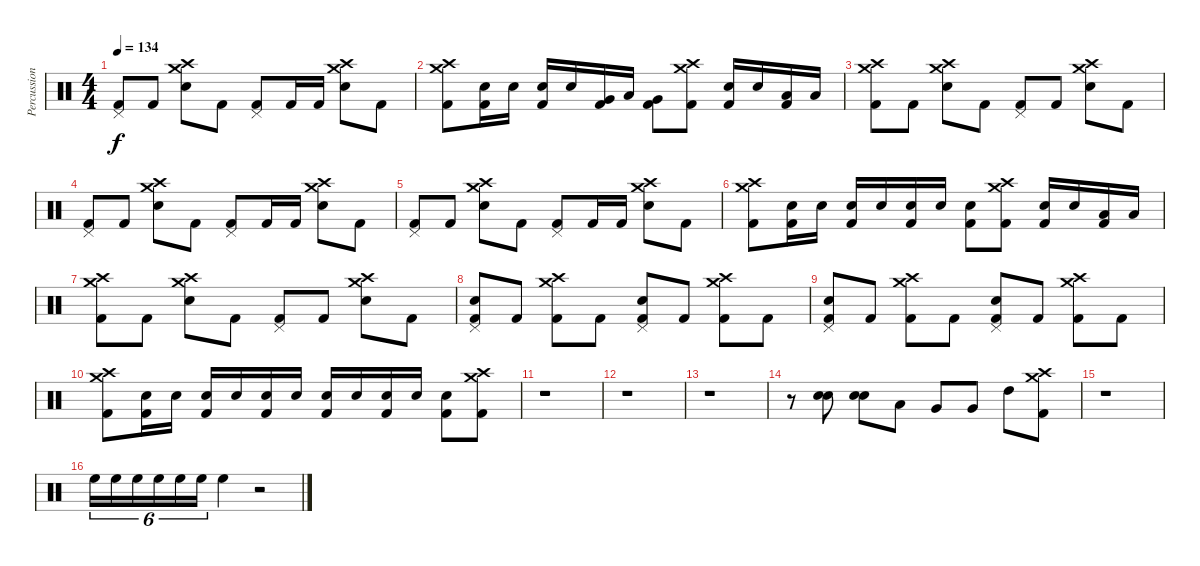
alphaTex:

\track ("Percussion" "Percussion") {instrument percussion}
\staff {score}
\articulation defaults
\ts (4 4)
\tempo 134
\clef neutral
\ks c
("Pedal Hi-Hat (hit)" "Kick (hit) 2").8{dy f} "Kick (hit) 2".8 ("Crash high (hit)" "Crash medium (hit)" "Snare (hit) 2").8 "Kick (hit) 2".8 ("Pedal Hi-Hat (hit)" "Kick (hit) 2").8 "Kick (hit) 2".16 "Kick (hit) 2".16 ("Crash high (hit)" "Crash medium (hit)" "Snare (hit) 2").8 "Kick (hit) 2".8 |
("Crash high (hit)" "Crash medium (hit)" "Kick (hit) 2").8 ("Snare (hit) 2" "Kick (hit) 2").16 "Snare (hit) 2".16 ("Snare (hit) 2" "Kick (hit) 2").16 "Snare (hit) 2".16 ("Very Low Tom (hit)" "Kick (hit) 2").16 "Low Tom (hit)".16 ("Very Low Tom (hit)" "Kick (hit) 2").8 ("Crash high (hit)" "Crash medium (hit)" "Kick (hit) 2").8 ("Snare (hit) 2" "Kick (hit) 2").16 "Snare (hit) 2".16 ("Low Tom (hit)" "Kick (hit) 2").16 "Low Tom (hit)".16 |
("Crash high (hit)" "Crash medium (hit)" "Kick (hit) 2").8 "Kick (hit) 2".8 ("Crash high (hit)" "Crash medium (hit)" "Snare (hit) 2").8 "Kick (hit) 2".8 ("Pedal Hi-Hat (hit)" "Kick (hit) 2").8 "Kick (hit) 2".8 ("Crash high (hit)" "Crash medium (hit)" "Snare (hit) 2").8 "Kick (hit) 2".8 |
("Pedal Hi-Hat (hit)" "Kick (hit) 2").8 "Kick (hit) 2".8 ("Crash high (hit)" "Crash medium (hit)" "Snare (hit) 2").8 "Kick (hit) 2".8 ("Pedal Hi-Hat (hit)" "Kick (hit) 2").8 "Kick (hit) 2".16 "Kick (hit) 2".16 ("Crash high (hit)" "Crash medium (hit)" "Snare (hit) 2").8 "Kick (hit) 2".8 |
("Pedal Hi-Hat (hit)" "Kick (hit) 2").8 "Kick (hit) 2".8 ("Crash high (hit)" "Crash medium (hit)" "Snare (hit) 2").8 "Kick (hit) 2".8 ("Pedal Hi-Hat (hit)" "Kick (hit) 2").8 "Kick (hit) 2".16 "Kick (hit) 2".16 ("Crash high (hit)" "Crash medium (hit)" "Snare (hit) 2").8 "Kick (hit) 2".8 |
("Crash high (hit)" "Crash medium (hit)" "Kick (hit) 2").8 ("Snare (hit) 2" "Kick (hit) 2").16 "Snare (hit) 2".16 ("Snare (hit) 2" "Kick (hit) 2").16 "Snare (hit) 2".16 ("Snare (hit) 2" "Kick (hit) 2").16 "Snare (hit) 2".16 ("Snare (hit) 2" "Kick (hit) 2").8 ("Crash high (hit)" "Crash medium (hit)" "Kick (hit) 2").8 ("Snare (hit) 2" "Kick (hit) 2").16 "Snare (hit) 2".16 ("Low Tom (hit)" "Kick (hit) 2").16 "Low Tom (hit)".16 |
("Crash high (hit)" "Crash medium (hit)" "Kick (hit) 2").8 "Kick (hit) 2".8 ("Crash high (hit)" "Crash medium (hit)" "Snare (hit) 2").8 "Kick (hit) 2".8 ("Pedal Hi-Hat (hit)" "Kick (hit) 2").8 "Kick (hit) 2".8 ("Crash high (hit)" "Crash medium (hit)" "Snare (hit) 2").8 "Kick (hit) 2".8 |
("Pedal Hi-Hat (hit)" "Snare (hit) 2" "Kick (hit) 2").8 "Kick (hit) 2".8 ("Crash high (hit)" "Crash medium (hit)" "Kick (hit) 2").8 "Kick (hit) 2".8 ("Pedal Hi-Hat (hit)" "Snare (hit) 2" "Kick (hit) 2").8 "Kick (hit) 2".8 ("Crash high (hit)" "Crash medium (hit)" "Kick (hit) 2").8 "Kick (hit) 2".8 |
("Pedal Hi-Hat (hit)" "Snare (hit) 2" "Kick (hit) 2").8 "Kick (hit) 2".8 ("Crash high (hit)" "Crash medium (hit)" "Kick (hit) 2").8 "Kick (hit) 2".8 ("Pedal Hi-Hat (hit)" "Snare (hit) 2" "Kick (hit) 2").8 "Kick (hit) 2".8 ("Crash high (hit)" "Crash medium (hit)" "Kick (hit) 2").8 "Kick (hit) 2".8 |
("Crash high (hit)" "Crash medium (hit)" "Kick (hit) 2").8 ("Snare (hit) 2" "Kick (hit) 2").16 "Snare (hit) 2".16 ("Snare (hit) 2" "Kick (hit) 2").16 "Snare (hit) 2".16 ("Snare (hit) 2" "Kick (hit) 2").16 "Snare (hit) 2".16 ("Snare (hit) 2" "Kick (hit) 2").16 "Snare (hit) 2".16 ("Snare (hit) 2" "Kick (hit) 2").16 "Snare (hit) 2".16 ("Snare (hit) 2" "Kick (hit) 2").8 ("Crash high (hit)" "Crash medium (hit)" "Kick (hit) 2").8 |
r.1 |
r.1 |
r.1 |
r.8 ("Snare (hit) 2" "Electric Snare (hit)").8 ("Snare (hit) 2" "Electric Snare (hit)").8 "Low Tom (hit)".8 "Very Low Tom (hit)".8 "Very Low Tom (hit)".8 "High Tom (hit)".8 ("Crash high (hit)" "Crash medium (hit)" "Kick (hit) 2").8 |
r.1 |
"High Floor Tom (hit)".16{tu (6 4)} "High Floor Tom (hit)".16{tu (6 4)} "High Floor Tom (hit)".16{tu (6 4)} "High Floor Tom (hit)".16{tu (6 4)} "High Floor Tom (hit)".16{tu (6 4)} "High Floor Tom (hit)".16{tu (6 4)} "High Floor Tom (hit)".4 r.2
